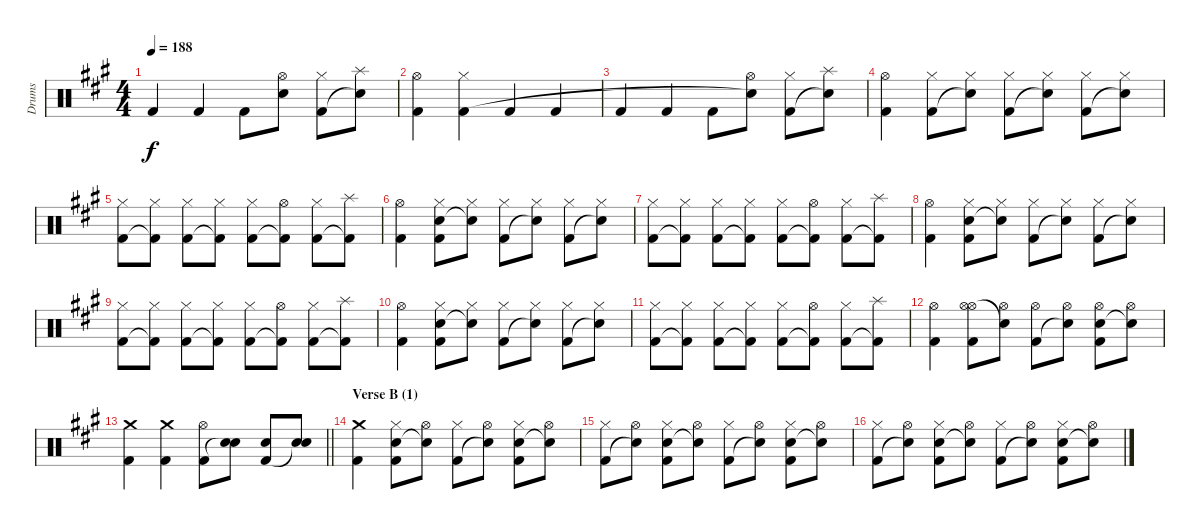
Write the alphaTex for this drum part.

\track ("Drums" "Drums") {instrument percussion}
\staff {score}
\articulation defaults
\ts (4 4)
\tempo 188
\clef neutral
\ks a "Kick (hit) 2".4{dy f} "Kick (hit) 2".4 "Kick (hit) 2".8
("Hi-Hat (open)" "Snare (hit)"{t}).8 ("Hi-Hat (closed)" "Kick (hit) 2").8 ("Splash (hit)" "Snare (hit)"{t}).8 |
("Hi-Hat (open)" "Kick (hit) 2").4 ("Hi-Hat (closed)" "Kick (hit) 2").4 "Kick (hit) 2".4 "Kick (hit) 2".4 |
"Kick (hit) 2".4 "Kick (hit) 2".4 "Kick (hit) 2".8 ("Hi-Hat (open)" "Snare (hit)"{t}).8 ("Hi-Hat (closed)" "Kick (hit) 2").8 ("Splash (hit)" "Snare (hit)"{t}).8 |
("Hi-Hat (open)" "Kick (hit) 2").4 ("Hi-Hat (closed)" "Kick (hit) 2").8 ("Hi-Hat (closed)" "Snare (hit)"{t}).8 ("Hi-Hat (closed)" "Kick (hit) 2").8 ("Hi-Hat (closed)" "Snare (hit)"{t}).8 ("Hi-Hat (closed)" "Kick (hit) 2").8 ("Hi-Hat (closed)" "Snare (hit)"{t}).8 |
("Hi-Hat (closed)" "Kick (hit) 2").8 ("Hi-Hat (closed)" "Kick (hit) 2"{t}).8 ("Hi-Hat (closed)" "Kick (hit) 2").8 ("Hi-Hat (closed)" "Kick (hit) 2"{t}).8 ("Hi-Hat (closed)" "Kick (hit) 2").8 ("Hi-Hat (open)" "Kick (hit) 2"{t}).8 ("Hi-Hat (closed)" "Kick (hit) 2").8 ("Splash (hit)" "Kick (hit) 2"{t}).8 |
("Hi-Hat (open)" "Kick (hit) 2").4 ("Hi-Hat (closed)" "Electric Snare (hit)" "Kick (hit) 2").8 ("Hi-Hat (closed)" "Snare (hit)"{t}).8 ("Hi-Hat (closed)" "Kick (hit) 2").8 ("Hi-Hat (closed)" "Snare (hit)"{t}).8 ("Hi-Hat (closed)" "Kick (hit) 2").8 ("Hi-Hat (closed)" "Snare (hit)"{t}).8 |
("Hi-Hat (closed)" "Kick (hit) 2").8 ("Hi-Hat (closed)" "Kick (hit) 2"{t}).8 ("Hi-Hat (closed)" "Kick (hit) 2").8 ("Hi-Hat (closed)" "Kick (hit) 2"{t}).8 ("Hi-Hat (closed)" "Kick (hit) 2").8 ("Hi-Hat (open)" "Kick (hit) 2"{t}).8 ("Hi-Hat (closed)" "Kick (hit) 2").8 ("Splash (hit)" "Kick (hit) 2"{t}).8 |
("Hi-Hat (open)" "Kick (hit) 2").4 ("Hi-Hat (closed)" "Electric Snare (hit)" "Kick (hit) 2").8 ("Hi-Hat (closed)" "Snare (hit)"{t}).8 ("Hi-Hat (closed)" "Kick (hit) 2").8 ("Hi-Hat (closed)" "Snare (hit)"{t}).8 ("Hi-Hat (closed)" "Kick (hit) 2").8 ("Hi-Hat (closed)" "Snare (hit)"{t}).8 |
("Hi-Hat (closed)" "Kick (hit) 2").8 ("Hi-Hat (closed)" "Kick (hit) 2"{t}).8 ("Hi-Hat (closed)" "Kick (hit) 2").8 ("Hi-Hat (closed)" "Kick (hit) 2"{t}).8 ("Hi-Hat (closed)" "Kick (hit) 2").8 ("Hi-Hat (open)" "Kick (hit) 2"{t}).8 ("Hi-Hat (closed)" "Kick (hit) 2").8 ("Splash (hit)" "Kick (hit) 2"{t}).8 |
("Hi-Hat (open)" "Kick (hit) 2").4 ("Hi-Hat (closed)" "Electric Snare (hit)" "Kick (hit) 2").8 ("Hi-Hat (closed)" "Snare (hit)"{t}).8 ("Hi-Hat (closed)" "Kick (hit) 2").8 ("Hi-Hat (closed)" "Snare (hit)"{t}).8 ("Hi-Hat (closed)" "Kick (hit) 2").8 ("Hi-Hat (closed)" "Snare (hit)"{t}).8 |
("Hi-Hat (closed)" "Kick (hit) 2").8 ("Hi-Hat (closed)" "Kick (hit) 2"{t}).8 ("Hi-Hat (closed)" "Kick (hit) 2").8 ("Hi-Hat (closed)" "Kick (hit) 2"{t}).8 ("Hi-Hat (closed)" "Kick (hit) 2").8 ("Hi-Hat (open)" "Kick (hit) 2"{t}).8 ("Hi-Hat (closed)" "Kick (hit) 2").8 ("Splash (hit)" "Kick (hit) 2"{t}).8 |
("Hi-Hat (open)" "Kick (hit) 2").4 ("Hi-Hat (open)" "Hi-Hat (open)" "Kick (hit) 2").8 ("Hi-Hat (open)" "Snare (hit)"{t}).8 ("Hi-Hat (open)" "Kick (hit) 2").8 ("Hi-Hat (open)" "Snare (hit)"{t}).8 ("Hi-Hat (open)" "Electric Snare (hit)" "Kick (hit) 2").8 ("Hi-Hat (open)" "Snare (hit)"{t}).8 |
\barLineRight lightlight
("Crash medium (hit)" "Kick (hit) 2").4 ("Crash medium (hit)" "Kick (hit) 2").4 ("Hi-Hat (open)" "Kick (hit) 2").8 ("Electric Snare (hit)" "Snare (hit)"{t}).8 ("Electric Snare (hit)" "Kick (hit) 2").8 ("Electric Snare (hit)" "Snare (hit)"{t}).8 |
\section ("" "Verse B (1)")
("Crash medium (hit)" "Kick (hit) 2").4 ("Hi-Hat (closed)" "Electric Snare (hit)" "Kick (hit) 2").8 ("Hi-Hat (open)" "Snare (hit)"{t}).8 ("Hi-Hat (closed)" "Kick (hit) 2").8 ("Hi-Hat (open)" "Snare (hit)"{t}).8 ("Hi-Hat (closed)" "Electric Snare (hit)" "Kick (hit) 2").8 ("Hi-Hat (open)" "Snare (hit)"{t}).8 |
("Hi-Hat (closed)" "Kick (hit) 2").8 ("Hi-Hat (open)" "Snare (hit)"{t}).8 ("Hi-Hat (closed)" "Electric Snare (hit)" "Kick (hit) 2").8 ("Hi-Hat (open)" "Snare (hit)"{t}).8 ("Hi-Hat (closed)" "Kick (hit) 2").8 ("Hi-Hat (open)" "Snare (hit)"{t}).8 ("Hi-Hat (closed)" "Electric Snare (hit)" "Kick (hit) 2").8 ("Hi-Hat (open)" "Snare (hit)"{t}).8 |
("Hi-Hat (closed)" "Kick (hit) 2").8 ("Hi-Hat (open)" "Snare (hit)"{t}).8 ("Hi-Hat (closed)" "Electric Snare (hit)" "Kick (hit) 2").8 ("Hi-Hat (open)" "Snare (hit)"{t}).8 ("Hi-Hat (closed)" "Kick (hit) 2").8 ("Hi-Hat (open)" "Snare (hit)"{t}).8 ("Hi-Hat (closed)" "Electric Snare (hit)" "Kick (hit) 2").8 ("Hi-Hat (open)" "Snare (hit)"{t}).8
